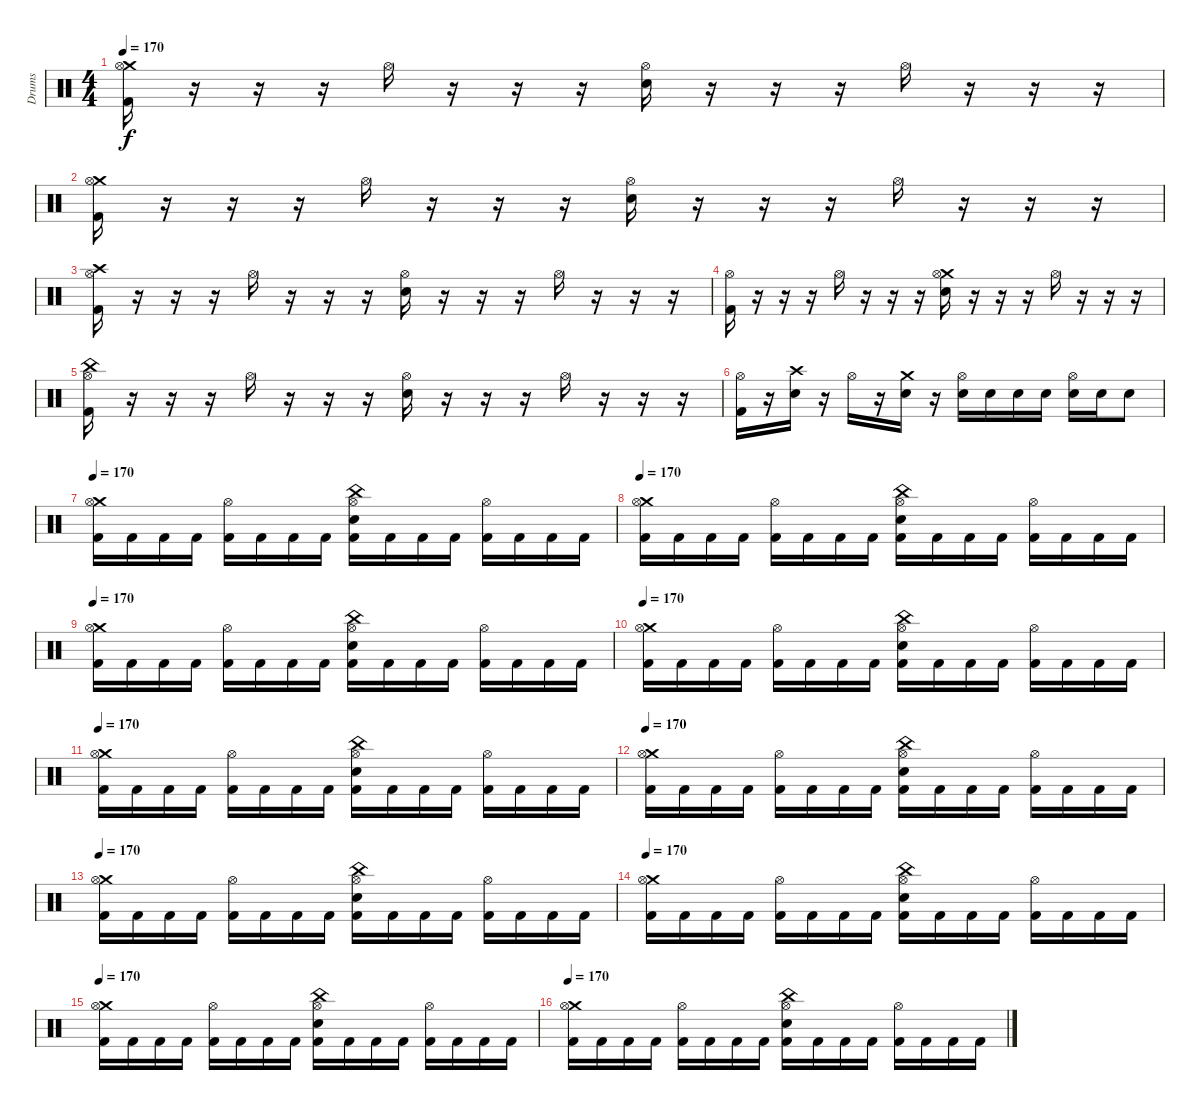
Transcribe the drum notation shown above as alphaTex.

\track ("Drums" "Drums") {instrument percussion}
\staff {score}
\articulation defaults
\ts (4 4)
\tempo 170
\clef neutral
\ks c
("Crash medium (hit)" "Hi-Hat (open)" "Kick (hit) 2").16{dy f} r.16 r.16 r.16 "Hi-Hat (open)".16 r.16 r.16 r.16 ("Hi-Hat (open)" "Electric Snare (hit)").16 r.16 r.16 r.16 "Hi-Hat (open)".16 r.16 r.16 r.16 |
("Crash medium (hit)" "Hi-Hat (open)" "Kick (hit) 2").16 r.16 r.16 r.16 "Hi-Hat (open)".16 r.16 r.16 r.16 ("Hi-Hat (open)" "Electric Snare (hit)").16 r.16 r.16 r.16 "Hi-Hat (open)".16 r.16 r.16 r.16 |
("Crash high (hit)" "Hi-Hat (open)" "Kick (hit) 2").16 r.16 r.16 r.16 "Hi-Hat (open)".16 r.16 r.16 r.16 ("Hi-Hat (open)" "Electric Snare (hit)").16 r.16 r.16 r.16 "Hi-Hat (open)".16 r.16 r.16 r.16 |
("Hi-Hat (open)" "Kick (hit) 2").16 r.16 r.16 r.16 "Hi-Hat (open)".16 r.16 r.16 r.16 ("Crash medium (hit)" "Hi-Hat (open)" "Electric Snare (hit)").16 r.16 r.16 r.16 "Hi-Hat (open)".16 r.16 r.16 r.16 |
("China (hit)" "Hi-Hat (open)" "Kick (hit) 2").16 r.16 r.16 r.16 "Hi-Hat (open)".16 r.16 r.16 r.16 ("Hi-Hat (open)" "Electric Snare (hit)").16 r.16 r.16 r.16 "Hi-Hat (open)".16 r.16 r.16 r.16 |
("Hi-Hat (open)" "Kick (hit) 2").16 r.16 ("Crash high (hit)" "Electric Snare (hit)").16 r.16 "Hi-Hat (open)".16 r.16 ("Crash medium (hit)" "Electric Snare (hit)").16 r.16 ("Hi-Hat (open)" "Electric Snare (hit)").16 "Electric Snare (hit)".16 "Electric Snare (hit)".16 "Electric Snare (hit)".16 ("Hi-Hat (open)" "Electric Snare (hit)").16 "Electric Snare (hit)".16 "Electric Snare (hit)".8 |
\tempo 170
("Crash medium (hit)" "Hi-Hat (open)" "Kick (hit) 2").16 "Kick (hit) 2".16 "Kick (hit) 2".16 "Kick (hit) 2".16 ("Hi-Hat (open)" "Kick (hit) 2").16 "Kick (hit) 2".16 "Kick (hit) 2".16 "Kick (hit) 2".16 ("China (hit)" "Hi-Hat (open)" "Electric Snare (hit)" "Kick (hit) 2").16 "Kick (hit) 2".16 "Kick (hit) 2".16 "Kick (hit) 2".16 ("Hi-Hat (open)" "Kick (hit) 2").16 "Kick (hit) 2".16 "Kick (hit) 2".16 "Kick (hit) 2".16 |
\tempo 170
("Crash medium (hit)" "Hi-Hat (open)" "Kick (hit) 2").16 "Kick (hit) 2".16 "Kick (hit) 2".16 "Kick (hit) 2".16 ("Hi-Hat (open)" "Kick (hit) 2").16 "Kick (hit) 2".16 "Kick (hit) 2".16 "Kick (hit) 2".16 ("China (hit)" "Hi-Hat (open)" "Electric Snare (hit)" "Kick (hit) 2").16 "Kick (hit) 2".16 "Kick (hit) 2".16 "Kick (hit) 2".16 ("Hi-Hat (open)" "Kick (hit) 2").16 "Kick (hit) 2".16 "Kick (hit) 2".16 "Kick (hit) 2".16 |
\tempo 170
("Crash medium (hit)" "Hi-Hat (open)" "Kick (hit) 2").16 "Kick (hit) 2".16 "Kick (hit) 2".16 "Kick (hit) 2".16 ("Hi-Hat (open)" "Kick (hit) 2").16 "Kick (hit) 2".16 "Kick (hit) 2".16 "Kick (hit) 2".16 ("China (hit)" "Hi-Hat (open)" "Electric Snare (hit)" "Kick (hit) 2").16 "Kick (hit) 2".16 "Kick (hit) 2".16 "Kick (hit) 2".16 ("Hi-Hat (open)" "Kick (hit) 2").16 "Kick (hit) 2".16 "Kick (hit) 2".16 "Kick (hit) 2".16 |
\tempo 170
("Crash medium (hit)" "Hi-Hat (open)" "Kick (hit) 2").16 "Kick (hit) 2".16 "Kick (hit) 2".16 "Kick (hit) 2".16 ("Hi-Hat (open)" "Kick (hit) 2").16 "Kick (hit) 2".16 "Kick (hit) 2".16 "Kick (hit) 2".16 ("China (hit)" "Hi-Hat (open)" "Electric Snare (hit)" "Kick (hit) 2").16 "Kick (hit) 2".16 "Kick (hit) 2".16 "Kick (hit) 2".16 ("Hi-Hat (open)" "Kick (hit) 2").16 "Kick (hit) 2".16 "Kick (hit) 2".16 "Kick (hit) 2".16 |
\tempo 170
("Crash medium (hit)" "Hi-Hat (open)" "Kick (hit) 2").16 "Kick (hit) 2".16 "Kick (hit) 2".16 "Kick (hit) 2".16 ("Hi-Hat (open)" "Kick (hit) 2").16 "Kick (hit) 2".16 "Kick (hit) 2".16 "Kick (hit) 2".16 ("China (hit)" "Hi-Hat (open)" "Electric Snare (hit)" "Kick (hit) 2").16 "Kick (hit) 2".16 "Kick (hit) 2".16 "Kick (hit) 2".16 ("Hi-Hat (open)" "Kick (hit) 2").16 "Kick (hit) 2".16 "Kick (hit) 2".16 "Kick (hit) 2".16 |
\tempo 170
("Crash medium (hit)" "Hi-Hat (open)" "Kick (hit) 2").16 "Kick (hit) 2".16 "Kick (hit) 2".16 "Kick (hit) 2".16 ("Hi-Hat (open)" "Kick (hit) 2").16 "Kick (hit) 2".16 "Kick (hit) 2".16 "Kick (hit) 2".16 ("China (hit)" "Hi-Hat (open)" "Electric Snare (hit)" "Kick (hit) 2").16 "Kick (hit) 2".16 "Kick (hit) 2".16 "Kick (hit) 2".16 ("Hi-Hat (open)" "Kick (hit) 2").16 "Kick (hit) 2".16 "Kick (hit) 2".16 "Kick (hit) 2".16 |
\tempo 170
("Crash medium (hit)" "Hi-Hat (open)" "Kick (hit) 2").16 "Kick (hit) 2".16 "Kick (hit) 2".16 "Kick (hit) 2".16 ("Hi-Hat (open)" "Kick (hit) 2").16 "Kick (hit) 2".16 "Kick (hit) 2".16 "Kick (hit) 2".16 ("China (hit)" "Hi-Hat (open)" "Electric Snare (hit)" "Kick (hit) 2").16 "Kick (hit) 2".16 "Kick (hit) 2".16 "Kick (hit) 2".16 ("Hi-Hat (open)" "Kick (hit) 2").16 "Kick (hit) 2".16 "Kick (hit) 2".16 "Kick (hit) 2".16 |
\tempo 170
("Crash medium (hit)" "Hi-Hat (open)" "Kick (hit) 2").16 "Kick (hit) 2".16 "Kick (hit) 2".16 "Kick (hit) 2".16 ("Hi-Hat (open)" "Kick (hit) 2").16 "Kick (hit) 2".16 "Kick (hit) 2".16 "Kick (hit) 2".16 ("China (hit)" "Hi-Hat (open)" "Electric Snare (hit)" "Kick (hit) 2").16 "Kick (hit) 2".16 "Kick (hit) 2".16 "Kick (hit) 2".16 ("Hi-Hat (open)" "Kick (hit) 2").16 "Kick (hit) 2".16 "Kick (hit) 2".16 "Kick (hit) 2".16 |
\tempo 170
("Crash medium (hit)" "Hi-Hat (open)" "Kick (hit) 2").16 "Kick (hit) 2".16 "Kick (hit) 2".16 "Kick (hit) 2".16 ("Hi-Hat (open)" "Kick (hit) 2").16 "Kick (hit) 2".16 "Kick (hit) 2".16 "Kick (hit) 2".16 ("China (hit)" "Hi-Hat (open)" "Electric Snare (hit)" "Kick (hit) 2").16 "Kick (hit) 2".16 "Kick (hit) 2".16 "Kick (hit) 2".16 ("Hi-Hat (open)" "Kick (hit) 2").16 "Kick (hit) 2".16 "Kick (hit) 2".16 "Kick (hit) 2".16 |
\tempo 170
("Crash medium (hit)" "Hi-Hat (open)" "Kick (hit) 2").16 "Kick (hit) 2".16 "Kick (hit) 2".16 "Kick (hit) 2".16 ("Hi-Hat (open)" "Kick (hit) 2").16 "Kick (hit) 2".16 "Kick (hit) 2".16 "Kick (hit) 2".16 ("China (hit)" "Hi-Hat (open)" "Electric Snare (hit)" "Kick (hit) 2").16 "Kick (hit) 2".16 "Kick (hit) 2".16 "Kick (hit) 2".16 ("Hi-Hat (open)" "Kick (hit) 2").16 "Kick (hit) 2".16 "Kick (hit) 2".16 "Kick (hit) 2".16
